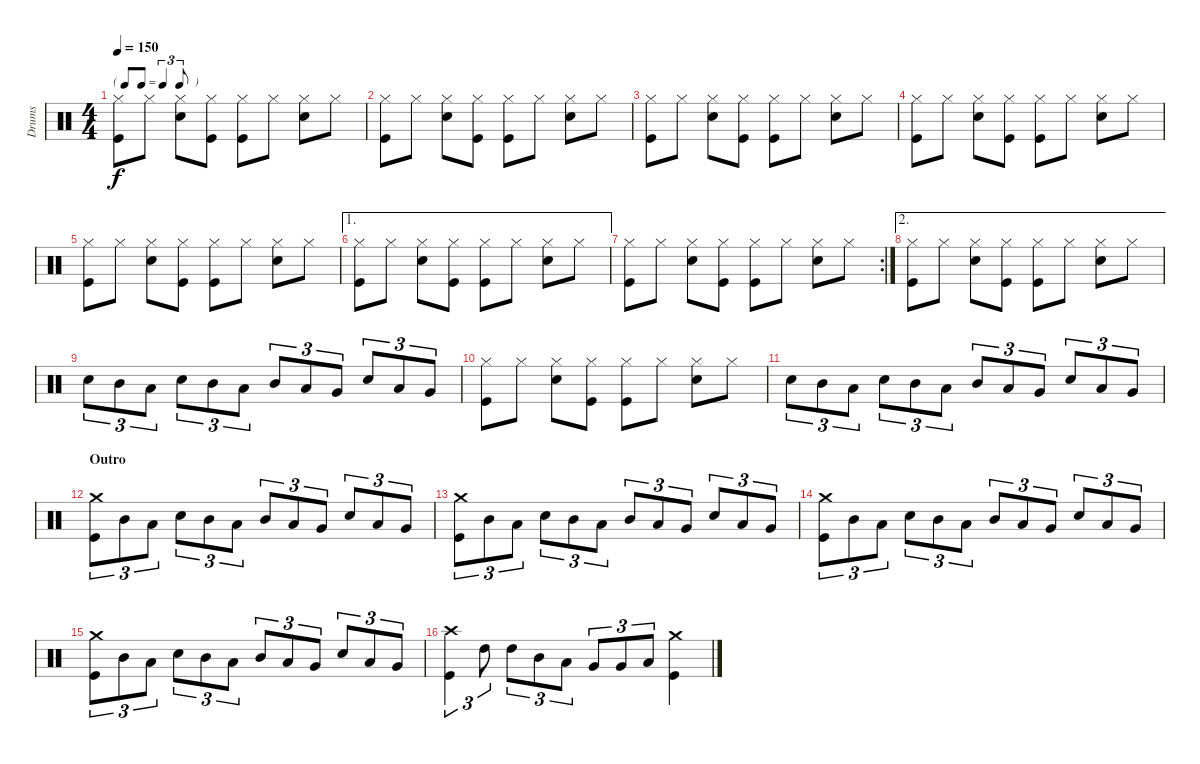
\track ("Drums" "Drums") {instrument percussion}
\staff {score}
\articulation defaults
\ts (4 4)
\tf triplet8th
\tempo 150
\clef neutral
\ks c
("Hi-Hat (closed)" "Kick (hit)").8{dy f} "Hi-Hat (closed)".8 ("Hi-Hat (closed)" "Snare (hit) 2").8 ("Hi-Hat (closed)" "Kick (hit)").8 ("Hi-Hat (closed)" "Kick (hit)").8 "Hi-Hat (closed)".8 ("Hi-Hat (closed)" "Snare (hit) 2").8 "Hi-Hat (closed)".8 |
("Hi-Hat (closed)" "Kick (hit)").8 "Hi-Hat (closed)".8 ("Hi-Hat (closed)" "Snare (hit) 2").8 ("Hi-Hat (closed)" "Kick (hit)").8 ("Hi-Hat (closed)" "Kick (hit)").8 "Hi-Hat (closed)".8 ("Hi-Hat (closed)" "Snare (hit) 2").8 "Hi-Hat (closed)".8 |
("Hi-Hat (closed)" "Kick (hit)").8 "Hi-Hat (closed)".8 ("Hi-Hat (closed)" "Snare (hit) 2").8 ("Hi-Hat (closed)" "Kick (hit)").8 ("Hi-Hat (closed)" "Kick (hit)").8 "Hi-Hat (closed)".8 ("Hi-Hat (closed)" "Snare (hit) 2").8 "Hi-Hat (closed)".8 |
("Hi-Hat (closed)" "Kick (hit)").8 "Hi-Hat (closed)".8 ("Hi-Hat (closed)" "Snare (hit) 2").8 ("Hi-Hat (closed)" "Kick (hit)").8 ("Hi-Hat (closed)" "Kick (hit)").8 "Hi-Hat (closed)".8 ("Hi-Hat (closed)" "Snare (hit) 2").8 "Hi-Hat (closed)".8 |
("Hi-Hat (closed)" "Kick (hit)").8 "Hi-Hat (closed)".8 ("Hi-Hat (closed)" "Snare (hit) 2").8 ("Hi-Hat (closed)" "Kick (hit)").8 ("Hi-Hat (closed)" "Kick (hit)").8 "Hi-Hat (closed)".8 ("Hi-Hat (closed)" "Snare (hit) 2").8 "Hi-Hat (closed)".8 |
\ae 1
("Hi-Hat (closed)" "Kick (hit)").8 "Hi-Hat (closed)".8 ("Hi-Hat (closed)" "Snare (hit) 2").8 ("Hi-Hat (closed)" "Kick (hit)").8 ("Hi-Hat (closed)" "Kick (hit)").8 "Hi-Hat (closed)".8 ("Hi-Hat (closed)" "Snare (hit) 2").8 "Hi-Hat (closed)".8 |
\rc 2
("Hi-Hat (closed)" "Kick (hit)").8 "Hi-Hat (closed)".8 ("Hi-Hat (closed)" "Snare (hit) 2").8 ("Hi-Hat (closed)" "Kick (hit)").8 ("Hi-Hat (closed)" "Kick (hit)").8 "Hi-Hat (closed)".8 ("Hi-Hat (closed)" "Snare (hit) 2").8 "Hi-Hat (closed)".8 |
\ae 2
("Hi-Hat (closed)" "Kick (hit)").8 "Hi-Hat (closed)".8 ("Hi-Hat (closed)" "Snare (hit) 2").8 ("Hi-Hat (closed)" "Kick (hit)").8 ("Hi-Hat (closed)" "Kick (hit)").8 "Hi-Hat (closed)".8 ("Hi-Hat (closed)" "Snare (hit) 2").8 "Hi-Hat (closed)".8 |
"Snare (hit) 2".8{tu (3 2)} "Mid Tom (hit)".8{tu (3 2)} "Low Tom (hit)".8{tu (3 2)} "Snare (hit) 2".8{tu (3 2)} "Mid Tom (hit)".8{tu (3 2)} "Low Tom (hit)".8{tu (3 2)} "Mid Tom (hit)".8{tu (3 2)} "Low Tom (hit)".8{tu (3 2)} "Very Low Tom (hit)".8{tu (3 2)} "Snare (hit) 2".8{tu (3 2)} "Low Tom (hit)".8{tu (3 2)} "Very Low Tom (hit)".8{tu (3 2)} |
("Hi-Hat (closed)" "Kick (hit)").8 "Hi-Hat (closed)".8 ("Hi-Hat (closed)" "Snare (hit) 2").8 ("Hi-Hat (closed)" "Kick (hit)").8 ("Hi-Hat (closed)" "Kick (hit)").8 "Hi-Hat (closed)".8 ("Hi-Hat (closed)" "Snare (hit) 2").8 "Hi-Hat (closed)".8 |
"Snare (hit) 2".8{tu (3 2)} "Mid Tom (hit)".8{tu (3 2)} "Low Tom (hit)".8{tu (3 2)} "Snare (hit) 2".8{tu (3 2)} "Mid Tom (hit)".8{tu (3 2)} "Low Tom (hit)".8{tu (3 2)} "Mid Tom (hit)".8{tu (3 2)} "Low Tom (hit)".8{tu (3 2)} "Very Low Tom (hit)".8{tu (3 2)} "Snare (hit) 2".8{tu (3 2)} "Low Tom (hit)".8{tu (3 2)} "Very Low Tom (hit)".8{tu (3 2)} |
\section ("" "Outro")
("Crash medium (hit)" "Kick (hit)").8{tu (3 2)} "Mid Tom (hit)".8{tu (3 2)} "Low Tom (hit)".8{tu (3 2)} "Snare (hit) 2".8{tu (3 2)} "Mid Tom (hit)".8{tu (3 2)} "Low Tom (hit)".8{tu (3 2)} "Mid Tom (hit)".8{tu (3 2)} "Low Tom (hit)".8{tu (3 2)} "Very Low Tom (hit)".8{tu (3 2)} "Snare (hit) 2".8{tu (3 2)} "Low Tom (hit)".8{tu (3 2)} "Very Low Tom (hit)".8{tu (3 2)} |
("Crash medium (hit)" "Kick (hit)").8{tu (3 2)} "Mid Tom (hit)".8{tu (3 2)} "Low Tom (hit)".8{tu (3 2)} "Snare (hit) 2".8{tu (3 2)} "Mid Tom (hit)".8{tu (3 2)} "Low Tom (hit)".8{tu (3 2)} "Mid Tom (hit)".8{tu (3 2)} "Low Tom (hit)".8{tu (3 2)} "Very Low Tom (hit)".8{tu (3 2)} "Snare (hit) 2".8{tu (3 2)} "Low Tom (hit)".8{tu (3 2)} "Very Low Tom (hit)".8{tu (3 2)} |
("Crash medium (hit)" "Kick (hit)").8{tu (3 2)} "Mid Tom (hit)".8{tu (3 2)} "Low Tom (hit)".8{tu (3 2)} "Snare (hit) 2".8{tu (3 2)} "Mid Tom (hit)".8{tu (3 2)} "Low Tom (hit)".8{tu (3 2)} "Mid Tom (hit)".8{tu (3 2)} "Low Tom (hit)".8{tu (3 2)} "Very Low Tom (hit)".8{tu (3 2)} "Snare (hit) 2".8{tu (3 2)} "Low Tom (hit)".8{tu (3 2)} "Very Low Tom (hit)".8{tu (3 2)} |
("Crash medium (hit)" "Kick (hit)").8{tu (3 2)} "Mid Tom (hit)".8{tu (3 2)} "Low Tom (hit)".8{tu (3 2)} "Snare (hit) 2".8{tu (3 2)} "Mid Tom (hit)".8{tu (3 2)} "Low Tom (hit)".8{tu (3 2)} "Mid Tom (hit)".8{tu (3 2)} "Low Tom (hit)".8{tu (3 2)} "Very Low Tom (hit)".8{tu (3 2)} "Snare (hit) 2".8{tu (3 2)} "Low Tom (hit)".8{tu (3 2)} "Very Low Tom (hit)".8{tu (3 2)} |
("Crash high (hit)" "Kick (hit)").4{tu (3 2)} "High Tom (hit)".8{tu (3 2)} "High Tom (hit)".8{tu (3 2)} "Mid Tom (hit)".8{tu (3 2)} "Low Tom (hit)".8{tu (3 2)} "Very Low Tom (hit)".8{tu (3 2)} "Very Low Tom (hit)".8{tu (3 2)} "Low Tom (hit)".8{tu (3 2)} ("Crash medium (hit)" "Kick (hit)").4
